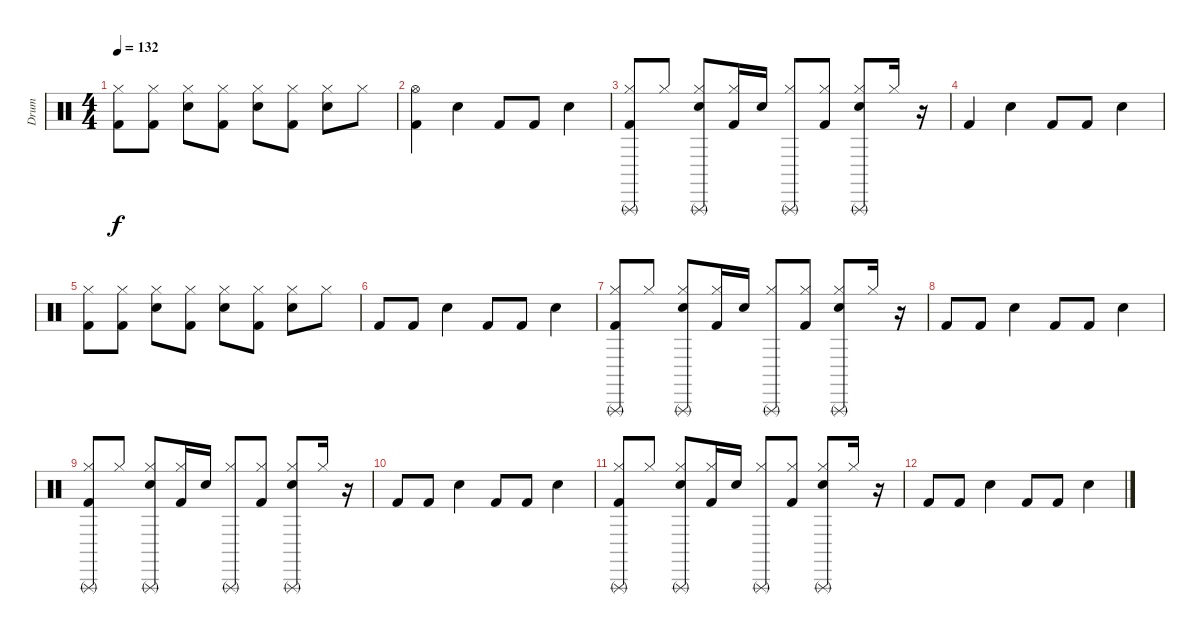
\track ("Drum" "Drum") {instrument percussion}
\staff {score}
\articulation defaults
\ts (4 4)
\tempo 132
\clef neutral
\ks c
("Hi-Hat (closed)" "Kick (hit) 2").8{dy f} ("Hi-Hat (closed)" "Kick (hit) 2").8 ("Hi-Hat (closed)" "Snare (hit) 2").8 ("Hi-Hat (closed)" "Kick (hit) 2").8 ("Hi-Hat (closed)" "Snare (hit) 2").8 ("Hi-Hat (closed)" "Kick (hit) 2").8 ("Hi-Hat (closed)" "Snare (hit) 2").8 "Hi-Hat (closed)".8 |
("Hi-Hat (open)" "Kick (hit) 2").4 "Snare (hit) 2".4 "Kick (hit) 2".8 "Kick (hit) 2".8 "Snare (hit) 2".4 |
("Triangle (rnute)" "Hi-Hat (closed)" "Kick (hit) 2").8 "Hi-Hat (closed)".8 ("Triangle (rnute)" "Hi-Hat (closed)" "Snare (hit) 2").8 ("Hi-Hat (closed)" "Kick (hit) 2").16 "Snare (hit) 2".16 ("Triangle (rnute)" "Hi-Hat (closed)").8 ("Hi-Hat (closed)" "Kick (hit) 2").8 ("Triangle (rnute)" "Hi-Hat (closed)" "Snare (hit) 2").8 "Hi-Hat (closed)".16 r.16 |
"Kick (hit) 2".4 "Snare (hit) 2".4 "Kick (hit) 2".8 "Kick (hit) 2".8 "Snare (hit) 2".4 |
("Hi-Hat (closed)" "Kick (hit) 2").8 ("Hi-Hat (closed)" "Kick (hit) 2").8 ("Hi-Hat (closed)" "Snare (hit) 2").8 ("Hi-Hat (closed)" "Kick (hit) 2").8 ("Hi-Hat (closed)" "Snare (hit) 2").8 ("Hi-Hat (closed)" "Kick (hit) 2").8 ("Hi-Hat (closed)" "Snare (hit) 2").8 "Hi-Hat (closed)".8 |
"Kick (hit) 2".8 "Kick (hit) 2".8 "Snare (hit) 2".4 "Kick (hit) 2".8 "Kick (hit) 2".8 "Snare (hit) 2".4 |
("Triangle (rnute)" "Hi-Hat (closed)" "Kick (hit) 2").8 "Hi-Hat (closed)".8 ("Triangle (rnute)" "Hi-Hat (closed)" "Snare (hit) 2").8 ("Hi-Hat (closed)" "Kick (hit) 2").16 "Snare (hit) 2".16 ("Triangle (rnute)" "Hi-Hat (closed)").8 ("Hi-Hat (closed)" "Kick (hit) 2").8 ("Triangle (rnute)" "Hi-Hat (closed)" "Snare (hit) 2").8 "Hi-Hat (closed)".16 r.16 |
"Kick (hit) 2".8 "Kick (hit) 2".8 "Snare (hit) 2".4 "Kick (hit) 2".8 "Kick (hit) 2".8 "Snare (hit) 2".4 |
("Triangle (rnute)" "Hi-Hat (closed)" "Kick (hit) 2").8 "Hi-Hat (closed)".8 ("Triangle (rnute)" "Hi-Hat (closed)" "Snare (hit) 2").8 ("Hi-Hat (closed)" "Kick (hit) 2").16 "Snare (hit) 2".16 ("Triangle (rnute)" "Hi-Hat (closed)").8 ("Hi-Hat (closed)" "Kick (hit) 2").8 ("Triangle (rnute)" "Hi-Hat (closed)" "Snare (hit) 2").8 "Hi-Hat (closed)".16 r.16 |
"Kick (hit) 2".8 "Kick (hit) 2".8 "Snare (hit) 2".4 "Kick (hit) 2".8 "Kick (hit) 2".8 "Snare (hit) 2".4 |
("Triangle (rnute)" "Hi-Hat (closed)" "Kick (hit) 2").8 "Hi-Hat (closed)".8 ("Triangle (rnute)" "Hi-Hat (closed)" "Snare (hit) 2").8 ("Hi-Hat (closed)" "Kick (hit) 2").16 "Snare (hit) 2".16 ("Triangle (rnute)" "Hi-Hat (closed)").8 ("Hi-Hat (closed)" "Kick (hit) 2").8 ("Triangle (rnute)" "Hi-Hat (closed)" "Snare (hit) 2").8 "Hi-Hat (closed)".16 r.16 |
"Kick (hit) 2".8 "Kick (hit) 2".8 "Snare (hit) 2".4 "Kick (hit) 2".8 "Kick (hit) 2".8 "Snare (hit) 2".4
